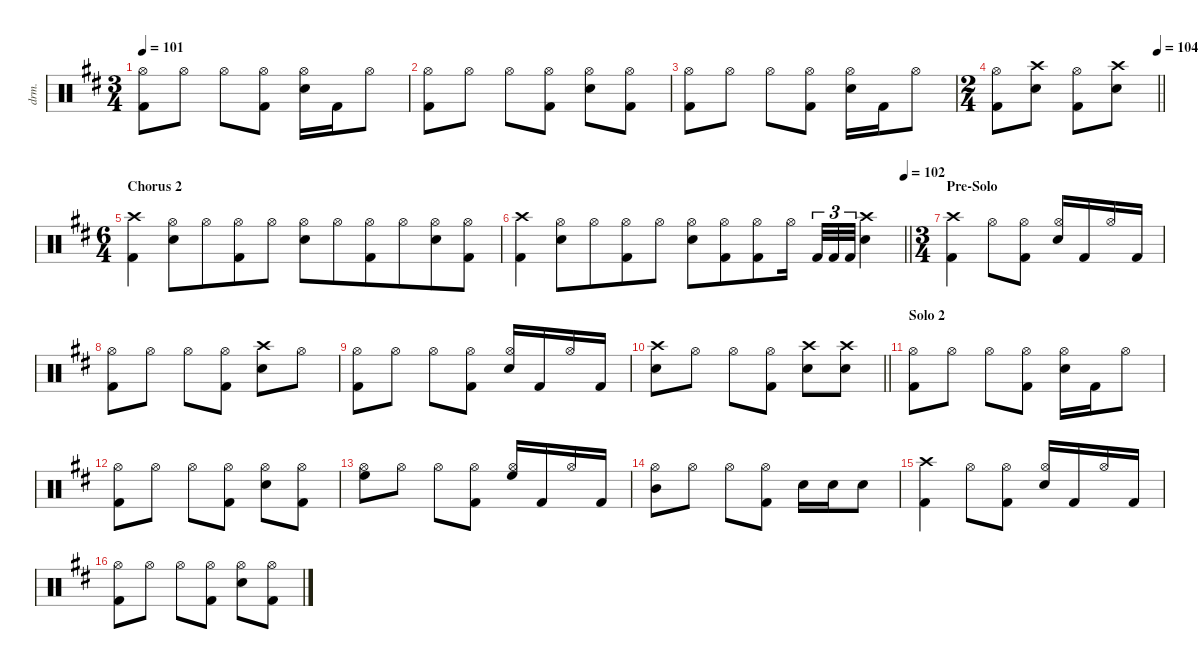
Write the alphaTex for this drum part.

\defaultSystemsLayout 4
\hideDynamics
\bracketExtendMode nobrackets
\otherSystemsTrackNameOrientation horizontal
\track ("Lars Ulrich" "drm.") {defaultSystemsLayout 4 instrument percussion}
\staff {score}
\articulation defaults
\ts (3 4)
\tempo 101
\clef neutral
\ks bminor
("Hi-Hat (open)"{acc forcenatural} "Kick (hit) 2"{acc forcenatural}).8{dy mf beam Down} "Hi-Hat (open)"{acc forcenatural}.8{beam Down} "Hi-Hat (open)"{acc forcenatural}.8{beam Down} ("Hi-Hat (open)"{acc forcenatural} "Kick (hit) 2"{acc forcenatural}).8{beam Down} ("Hi-Hat (open)"{acc forcenatural} "Snare (hit) 2"{acc forcenatural}).16{beam Down} "Kick (hit) 2"{acc forcenatural}.16{dy fff beam Down} "Hi-Hat (open)"{acc forcenatural}.8{dy mf beam Down} |
("Hi-Hat (open)"{acc forcenatural} "Kick (hit) 2"{acc forcenatural}).8{beam Down} "Hi-Hat (open)"{acc forcenatural}.8{beam Down} "Hi-Hat (open)"{acc forcenatural}.8{beam Down} ("Hi-Hat (open)"{acc forcenatural} "Kick (hit) 2"{acc forcenatural}).8{beam Down} ("Hi-Hat (open)"{acc forcenatural} "Snare (hit) 2"{acc forcenatural}).8{beam Down} ("Hi-Hat (open)"{acc forcenatural} "Kick (hit) 2"{acc forcenatural}).8{beam Down} |
("Hi-Hat (open)"{acc forcenatural} "Kick (hit) 2"{acc forcenatural}).8{beam Down} "Hi-Hat (open)"{acc forcenatural}.8{beam Down} "Hi-Hat (open)"{acc forcenatural}.8{beam Down} ("Hi-Hat (open)"{acc forcenatural} "Kick (hit) 2"{acc forcenatural}).8{beam Down} ("Hi-Hat (open)"{acc forcenatural} "Snare (hit) 2"{acc forcenatural}).16{beam Down} "Kick (hit) 2"{acc forcenatural}.16{dy fff beam Down} "Hi-Hat (open)"{acc forcenatural}.8{dy mf beam Down} |
\ts (2 4)
\beaming (8 2 2)
\tempo (104 1)
\barLineRight lightlight
("Hi-Hat (open)"{acc forcenatural} "Kick (hit) 2"{acc forcenatural}).8{beam Down} ("Crash high (hit)"{acc forcenatural} "Snare (hit) 2"{acc forcenatural}).8{dy f beam Down} ("Hi-Hat (open)"{acc forcenatural} "Kick (hit) 2"{acc forcenatural}).8{dy mf beam Down} ("Crash high (hit)"{acc forcenatural} "Snare (hit) 2"{acc forcenatural}).8{dy f beam Down} |
\ts (6 4)
\beaming (8 6 6)
\section ("" "Chorus 2")
("Crash high (hit)"{acc forcenatural} "Kick (hit) 2"{acc forcenatural}).4{beam Down} ("Hi-Hat (open)"{acc forcenatural} "Snare (hit) 2"{acc forcenatural}).8{beam Down} "Hi-Hat (open)"{acc forcenatural}.8{beam Down} ("Hi-Hat (open)"{acc forcenatural} "Kick (hit) 2"{acc forcenatural}).8{beam Down} "Hi-Hat (open)"{acc forcenatural}.8{beam Down} ("Hi-Hat (open)"{acc forcenatural} "Snare (hit) 2"{acc forcenatural}).8{beam Down} "Hi-Hat (open)"{acc forcenatural}.8{beam Down} ("Hi-Hat (open)"{acc forcenatural} "Kick (hit) 2"{acc forcenatural}).8{beam Down} "Hi-Hat (open)"{acc forcenatural}.8{beam Down} ("Hi-Hat (open)"{acc forcenatural} "Snare (hit) 2"{acc forcenatural}).8{beam Down} ("Hi-Hat (open)"{acc forcenatural} "Kick (hit) 2"{acc forcenatural}).8{beam Down} |
\tempo (102 1)
\barLineRight lightlight
("Crash high (hit)"{acc forcenatural} "Kick (hit) 2"{acc forcenatural}).4{beam Down} ("Hi-Hat (open)"{acc forcenatural} "Snare (hit) 2"{acc forcenatural}).8{beam Down} "Hi-Hat (open)"{acc forcenatural}.8{beam Down} ("Hi-Hat (open)"{acc forcenatural} "Kick (hit) 2"{acc forcenatural}).8{beam Down} "Hi-Hat (open)"{acc forcenatural}.8{beam Down} ("Hi-Hat (open)"{acc forcenatural} "Snare (hit) 2"{acc forcenatural}).8{beam Down} ("Hi-Hat (open)"{acc forcenatural} "Kick (hit) 2"{acc forcenatural}).8{beam Down} ("Hi-Hat (open)"{acc forcenatural} "Kick (hit) 2"{acc forcenatural}).8{beam Down} "Hi-Hat (open)"{acc forcenatural}.16{beam Down} "Kick (hit) 2"{acc forcenatural}.32{tu (3 2) dy fff beam Up} "Kick (hit) 2"{acc forcenatural}.32{tu (3 2) beam Up} "Kick (hit) 2"{acc forcenatural}.32{tu (3 2) beam Up} ("Crash high (hit)"{acc forcenatural} "Snare (hit) 2"{acc forcenatural}).4{dy f beam Down} |
\ts (3 4)
\beaming (8 2 2 2)
\section ("" "Pre-Solo")
("Crash high (hit)"{acc forcenatural} "Kick (hit) 2"{acc forcenatural}).4{beam Down} "Hi-Hat (open)"{acc forcenatural}.8{dy mf beam Down} ("Hi-Hat (open)"{acc forcenatural} "Kick (hit) 2"{acc forcenatural}).8{beam Down} ("Hi-Hat (open)"{acc forcenatural} "Snare (hit) 2"{acc forcenatural}).16{beam Up} "Kick (hit) 2"{acc forcenatural}.16{dy fff beam Up} "Hi-Hat (open)"{acc forcenatural}.16{dy mf beam Up} "Kick (hit) 2"{acc forcenatural}.16{dy fff beam Up} |
("Hi-Hat (open)"{acc forcenatural} "Kick (hit) 2"{acc forcenatural}).8{dy mf beam Down} "Hi-Hat (open)"{acc forcenatural}.8{beam Down} "Hi-Hat (open)"{acc forcenatural}.8{beam Down} ("Hi-Hat (open)"{acc forcenatural} "Kick (hit) 2"{acc forcenatural}).8{beam Down} ("Crash high (hit)"{acc forcenatural} "Snare (hit) 2"{acc forcenatural}).8{dy f beam Down} "Hi-Hat (open)"{acc forcenatural}.8{dy mf beam Down} |
("Hi-Hat (open)"{acc forcenatural} "Kick (hit) 2"{acc forcenatural}).8{beam Down} "Hi-Hat (open)"{acc forcenatural}.8{beam Down} "Hi-Hat (open)"{acc forcenatural}.8{beam Down} ("Hi-Hat (open)"{acc forcenatural} "Kick (hit) 2"{acc forcenatural}).8{beam Down} ("Hi-Hat (open)"{acc forcenatural} "Snare (hit) 2"{acc forcenatural}).16{beam Up} "Kick (hit) 2"{acc forcenatural}.16{dy fff beam Up} "Hi-Hat (open)"{acc forcenatural}.16{dy mf beam Up} "Kick (hit) 2"{acc forcenatural}.16{dy fff beam Up} |
\barLineRight lightlight
("Crash high (hit)"{acc forcenatural} "Snare (hit) 2"{acc forcenatural}).8{dy f beam Down} "Hi-Hat (open)"{acc forcenatural}.8{dy mf beam Down} "Hi-Hat (open)"{acc forcenatural}.8{beam Down} ("Hi-Hat (open)"{acc forcenatural} "Kick (hit) 2"{acc forcenatural}).8{beam Down} ("Crash high (hit)"{acc forcenatural} "Snare (hit) 2"{acc forcenatural}).8{dy f beam Down} ("Crash high (hit)"{acc forcenatural} "Snare (hit) 2"{acc forcenatural}).8{beam Down} |
\section ("" "Solo 2")
("Hi-Hat (open)"{acc forcenatural} "Kick (hit) 2"{acc forcenatural}).8{dy mf beam Down} "Hi-Hat (open)"{acc forcenatural}.8{beam Down} "Hi-Hat (open)"{acc forcenatural}.8{beam Down} ("Hi-Hat (open)"{acc forcenatural} "Kick (hit) 2"{acc forcenatural}).8{beam Down} ("Hi-Hat (open)"{acc forcenatural} "Snare (hit) 2"{acc forcenatural}).16{beam Down} "Kick (hit) 2"{acc forcenatural}.16{dy fff beam Down} "Hi-Hat (open)"{acc forcenatural}.8{dy mf beam Down} |
("Hi-Hat (open)"{acc forcenatural} "Kick (hit) 2"{acc forcenatural}).8{beam Down} "Hi-Hat (open)"{acc forcenatural}.8{beam Down} "Hi-Hat (open)"{acc forcenatural}.8{beam Down} ("Hi-Hat (open)"{acc forcenatural} "Kick (hit) 2"{acc forcenatural}).8{beam Down} ("Hi-Hat (open)"{acc forcenatural} "Snare (hit) 2"{acc forcenatural}).8{beam Down} ("Hi-Hat (open)"{acc forcenatural} "Kick (hit) 2"{acc forcenatural}).8{beam Down} |
("Hi-Hat (open)"{acc forcenatural} "High Floor Tom (hit)"{acc forcenatural}).8{beam Down} "Hi-Hat (open)"{acc forcenatural}.8{beam Down} "Hi-Hat (open)"{acc forcenatural}.8{beam Down} ("Hi-Hat (open)"{acc forcenatural} "Kick (hit) 2"{acc forcenatural}).8{beam Down} ("Hi-Hat (open)"{acc forcenatural} "High Floor Tom (hit)"{acc forcenatural}).16{beam Up} "Kick (hit) 2"{acc forcenatural}.16{dy fff beam Up} "Hi-Hat (open)"{acc forcenatural}.16{dy mf beam Up} "Kick (hit) 2"{acc forcenatural}.16{dy fff beam Up} |
("Hi-Hat (open)"{acc forcenatural} "Mid Tom (hit)"{acc forcenatural}).8{dy mf beam Down} "Hi-Hat (open)"{acc forcenatural}.8{beam Down} "Hi-Hat (open)"{acc forcenatural}.8{beam Down} ("Hi-Hat (open)"{acc forcenatural} "Kick (hit) 2"{acc forcenatural}).8{beam Down} "Snare (hit) 2"{acc forcenatural}.16{dy fff beam Down} "Snare (hit) 2"{acc forcenatural}.16{beam Down} "Snare (hit) 2"{acc forcenatural}.8{beam Down} |
("Crash high (hit)"{acc forcenatural} "Kick (hit) 2"{acc forcenatural}).4{dy f beam Down} "Hi-Hat (open)"{acc forcenatural}.8{dy mf beam Down} ("Hi-Hat (open)"{acc forcenatural} "Kick (hit) 2"{acc forcenatural}).8{beam Down} ("Hi-Hat (open)"{acc forcenatural} "Snare (hit) 2"{acc forcenatural}).16{beam Up} "Kick (hit) 2"{acc forcenatural}.16{dy fff beam Up} "Hi-Hat (open)"{acc forcenatural}.16{dy mf beam Up} "Kick (hit) 2"{acc forcenatural}.16{dy fff beam Up} |
("Hi-Hat (open)"{acc forcenatural} "Kick (hit) 2"{acc forcenatural}).8{dy mf beam Down} "Hi-Hat (open)"{acc forcenatural}.8{beam Down} "Hi-Hat (open)"{acc forcenatural}.8{beam Down} ("Hi-Hat (open)"{acc forcenatural} "Kick (hit) 2"{acc forcenatural}).8{beam Down} ("Hi-Hat (open)"{acc forcenatural} "Snare (hit) 2"{acc forcenatural}).8{beam Down} ("Hi-Hat (open)"{acc forcenatural} "Kick (hit) 2"{acc forcenatural}).8{beam Down}
